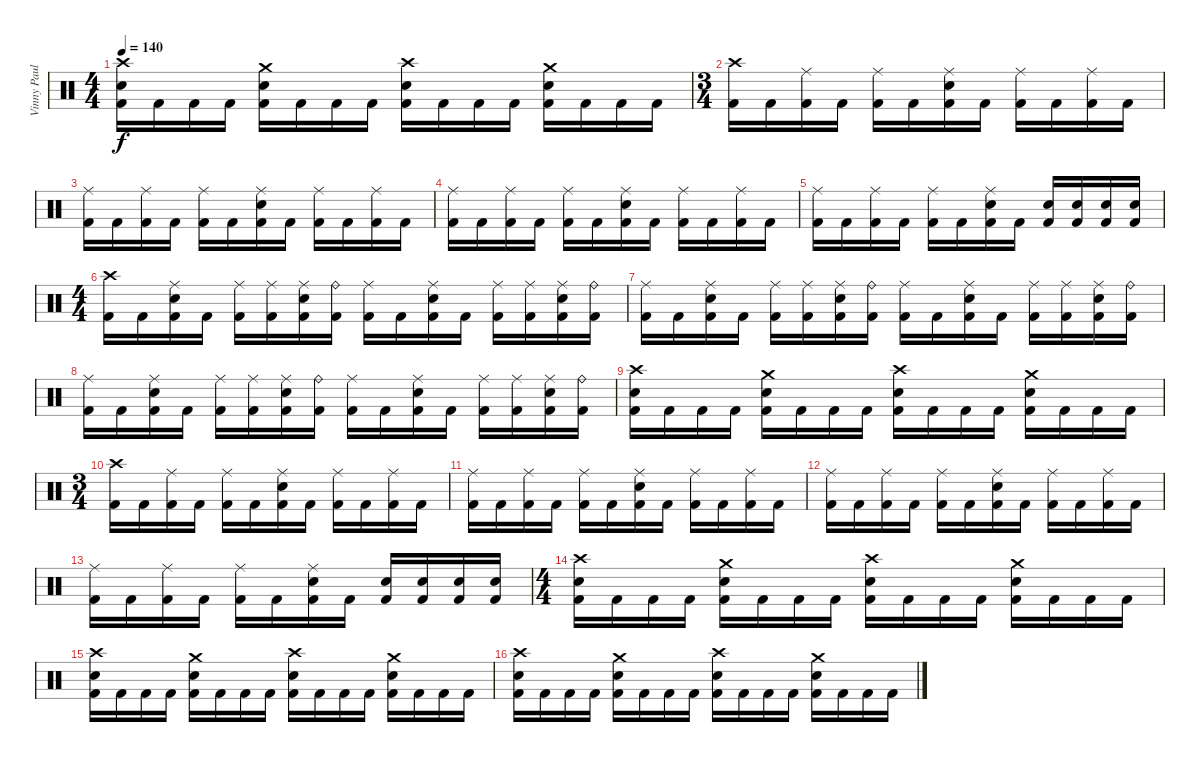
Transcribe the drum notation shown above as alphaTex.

\track ("Vinny Paul" "Vinny Paul") {instrument percussion}
\staff {score}
\articulation defaults
\ts (4 4)
\tempo 140
\clef neutral
\ks c
("Crash high (hit)" "Snare (hit) 2" "Kick (hit) 2").16{dy f} "Kick (hit) 2".16 "Kick (hit) 2".16 "Kick (hit) 2".16 ("Crash medium (hit)" "Snare (hit) 2" "Kick (hit) 2").16 "Kick (hit) 2".16 "Kick (hit) 2".16 "Kick (hit) 2".16 ("Crash high (hit)" "Snare (hit) 2" "Kick (hit) 2").16 "Kick (hit) 2".16 "Kick (hit) 2".16 "Kick (hit) 2".16 ("Crash medium (hit)" "Snare (hit) 2" "Kick (hit) 2").16 "Kick (hit) 2".16 "Kick (hit) 2".16 "Kick (hit) 2".16 |
\ts (3 4)
("Crash high (hit)" "Kick (hit) 2").16 "Kick (hit) 2".16 ("Ride (middle)" "Kick (hit) 2").16 "Kick (hit) 2".16 ("Ride (middle)" "Kick (hit) 2").16 "Kick (hit) 2".16 ("Ride (middle)" "Snare (hit) 2" "Kick (hit) 2").16 "Kick (hit) 2".16 ("Ride (middle)" "Kick (hit) 2").16 "Kick (hit) 2".16 ("Ride (middle)" "Kick (hit) 2").16 "Kick (hit) 2".16 |
("Ride (middle)" "Kick (hit) 2").16 "Kick (hit) 2".16 ("Ride (middle)" "Kick (hit) 2").16 "Kick (hit) 2".16 ("Ride (middle)" "Kick (hit) 2").16 "Kick (hit) 2".16 ("Ride (middle)" "Snare (hit) 2" "Kick (hit) 2").16 "Kick (hit) 2".16 ("Ride (middle)" "Kick (hit) 2").16 "Kick (hit) 2".16 ("Ride (middle)" "Kick (hit) 2").16 "Kick (hit) 2".16 |
("Ride (middle)" "Kick (hit) 2").16 "Kick (hit) 2".16 ("Ride (middle)" "Kick (hit) 2").16 "Kick (hit) 2".16 ("Ride (middle)" "Kick (hit) 2").16 "Kick (hit) 2".16 ("Ride (middle)" "Snare (hit) 2" "Kick (hit) 2").16 "Kick (hit) 2".16 ("Ride (middle)" "Kick (hit) 2").16 "Kick (hit) 2".16 ("Ride (middle)" "Kick (hit) 2").16 "Kick (hit) 2".16 |
("Ride (middle)" "Kick (hit) 2").16 "Kick (hit) 2".16 ("Ride (middle)" "Kick (hit) 2").16 "Kick (hit) 2".16 ("Ride (middle)" "Kick (hit) 2").16 "Kick (hit) 2".16 ("Ride (middle)" "Snare (hit) 2" "Kick (hit) 2").16 "Kick (hit) 2".16 ("Snare (hit) 2" "Kick (hit) 2").16 ("Snare (hit) 2" "Kick (hit) 2").16 ("Snare (hit) 2" "Kick (hit) 2").16 ("Snare (hit) 2" "Kick (hit) 2").16 |
\ts (4 4)
("Crash high (hit)" "Kick (hit) 2").16 "Kick (hit) 2".16 ("Ride (middle)" "Snare (hit) 2" "Kick (hit) 2").16 "Kick (hit) 2".16 ("Ride (middle)" "Kick (hit) 2").16 ("Ride (middle)" "Kick (hit) 2").16 ("Ride (middle)" "Snare (hit) 2" "Kick (hit) 2").16 ("Ride (bell)" "Kick (hit) 2").16 ("Ride (middle)" "Kick (hit) 2").16 "Kick (hit) 2".16 ("Ride (middle)" "Snare (hit) 2" "Kick (hit) 2").16 "Kick (hit) 2".16 ("Ride (middle)" "Kick (hit) 2").16 ("Ride (middle)" "Kick (hit) 2").16 ("Ride (middle)" "Snare (hit) 2" "Kick (hit) 2").16 ("Ride (bell)" "Kick (hit) 2").16 |
("Ride (middle)" "Kick (hit) 2").16 "Kick (hit) 2".16 ("Ride (middle)" "Snare (hit) 2" "Kick (hit) 2").16 "Kick (hit) 2".16 ("Ride (middle)" "Kick (hit) 2").16 ("Ride (middle)" "Kick (hit) 2").16 ("Ride (middle)" "Snare (hit) 2" "Kick (hit) 2").16 ("Ride (bell)" "Kick (hit) 2").16 ("Ride (middle)" "Kick (hit) 2").16 "Kick (hit) 2".16 ("Ride (middle)" "Snare (hit) 2" "Kick (hit) 2").16 "Kick (hit) 2".16 ("Ride (middle)" "Kick (hit) 2").16 ("Ride (middle)" "Kick (hit) 2").16 ("Ride (middle)" "Snare (hit) 2" "Kick (hit) 2").16 ("Ride (bell)" "Kick (hit) 2").16 |
("Ride (middle)" "Kick (hit) 2").16 "Kick (hit) 2".16 ("Ride (middle)" "Snare (hit) 2" "Kick (hit) 2").16 "Kick (hit) 2".16 ("Ride (middle)" "Kick (hit) 2").16 ("Ride (middle)" "Kick (hit) 2").16 ("Ride (middle)" "Snare (hit) 2" "Kick (hit) 2").16 ("Ride (bell)" "Kick (hit) 2").16 ("Ride (middle)" "Kick (hit) 2").16 "Kick (hit) 2".16 ("Ride (middle)" "Snare (hit) 2" "Kick (hit) 2").16 "Kick (hit) 2".16 ("Ride (middle)" "Kick (hit) 2").16 ("Ride (middle)" "Kick (hit) 2").16 ("Ride (middle)" "Snare (hit) 2" "Kick (hit) 2").16 ("Ride (bell)" "Kick (hit) 2").16 |
("Crash high (hit)" "Snare (hit) 2" "Kick (hit) 2").16 "Kick (hit) 2".16 "Kick (hit) 2".16 "Kick (hit) 2".16 ("Crash medium (hit)" "Snare (hit) 2" "Kick (hit) 2").16 "Kick (hit) 2".16 "Kick (hit) 2".16 "Kick (hit) 2".16 ("Crash high (hit)" "Snare (hit) 2" "Kick (hit) 2").16 "Kick (hit) 2".16 "Kick (hit) 2".16 "Kick (hit) 2".16 ("Crash medium (hit)" "Snare (hit) 2" "Kick (hit) 2").16 "Kick (hit) 2".16 "Kick (hit) 2".16 "Kick (hit) 2".16 |
\ts (3 4)
("Crash high (hit)" "Kick (hit) 2").16 "Kick (hit) 2".16 ("Ride (middle)" "Kick (hit) 2").16 "Kick (hit) 2".16 ("Ride (middle)" "Kick (hit) 2").16 "Kick (hit) 2".16 ("Ride (middle)" "Snare (hit) 2" "Kick (hit) 2").16 "Kick (hit) 2".16 ("Ride (middle)" "Kick (hit) 2").16 "Kick (hit) 2".16 ("Ride (middle)" "Kick (hit) 2").16 "Kick (hit) 2".16 |
("Ride (middle)" "Kick (hit) 2").16 "Kick (hit) 2".16 ("Ride (middle)" "Kick (hit) 2").16 "Kick (hit) 2".16 ("Ride (middle)" "Kick (hit) 2").16 "Kick (hit) 2".16 ("Ride (middle)" "Snare (hit) 2" "Kick (hit) 2").16 "Kick (hit) 2".16 ("Ride (middle)" "Kick (hit) 2").16 "Kick (hit) 2".16 ("Ride (middle)" "Kick (hit) 2").16 "Kick (hit) 2".16 |
("Ride (middle)" "Kick (hit) 2").16 "Kick (hit) 2".16 ("Ride (middle)" "Kick (hit) 2").16 "Kick (hit) 2".16 ("Ride (middle)" "Kick (hit) 2").16 "Kick (hit) 2".16 ("Ride (middle)" "Snare (hit) 2" "Kick (hit) 2").16 "Kick (hit) 2".16 ("Ride (middle)" "Kick (hit) 2").16 "Kick (hit) 2".16 ("Ride (middle)" "Kick (hit) 2").16 "Kick (hit) 2".16 |
("Ride (middle)" "Kick (hit) 2").16 "Kick (hit) 2".16 ("Ride (middle)" "Kick (hit) 2").16 "Kick (hit) 2".16 ("Ride (middle)" "Kick (hit) 2").16 "Kick (hit) 2".16 ("Ride (middle)" "Snare (hit) 2" "Kick (hit) 2").16 "Kick (hit) 2".16 ("Snare (hit) 2" "Kick (hit) 2").16 ("Snare (hit) 2" "Kick (hit) 2").16 ("Snare (hit) 2" "Kick (hit) 2").16 ("Snare (hit) 2" "Kick (hit) 2").16 |
\ts (4 4)
("Crash high (hit)" "Snare (hit) 2" "Kick (hit) 2").16 "Kick (hit) 2".16 "Kick (hit) 2".16 "Kick (hit) 2".16 ("Crash medium (hit)" "Snare (hit) 2" "Kick (hit) 2").16 "Kick (hit) 2".16 "Kick (hit) 2".16 "Kick (hit) 2".16 ("Crash high (hit)" "Snare (hit) 2" "Kick (hit) 2").16 "Kick (hit) 2".16 "Kick (hit) 2".16 "Kick (hit) 2".16 ("Crash medium (hit)" "Snare (hit) 2" "Kick (hit) 2").16 "Kick (hit) 2".16 "Kick (hit) 2".16 "Kick (hit) 2".16 |
("Crash high (hit)" "Snare (hit) 2" "Kick (hit) 2").16 "Kick (hit) 2".16 "Kick (hit) 2".16 "Kick (hit) 2".16 ("Crash medium (hit)" "Snare (hit) 2" "Kick (hit) 2").16 "Kick (hit) 2".16 "Kick (hit) 2".16 "Kick (hit) 2".16 ("Crash high (hit)" "Snare (hit) 2" "Kick (hit) 2").16 "Kick (hit) 2".16 "Kick (hit) 2".16 "Kick (hit) 2".16 ("Crash medium (hit)" "Snare (hit) 2" "Kick (hit) 2").16 "Kick (hit) 2".16 "Kick (hit) 2".16 "Kick (hit) 2".16 |
("Crash high (hit)" "Snare (hit) 2" "Kick (hit) 2").16 "Kick (hit) 2".16 "Kick (hit) 2".16 "Kick (hit) 2".16 ("Crash medium (hit)" "Snare (hit) 2" "Kick (hit) 2").16 "Kick (hit) 2".16 "Kick (hit) 2".16 "Kick (hit) 2".16 ("Crash high (hit)" "Snare (hit) 2" "Kick (hit) 2").16 "Kick (hit) 2".16 "Kick (hit) 2".16 "Kick (hit) 2".16 ("Crash medium (hit)" "Snare (hit) 2" "Kick (hit) 2").16 "Kick (hit) 2".16 "Kick (hit) 2".16 "Kick (hit) 2".16
